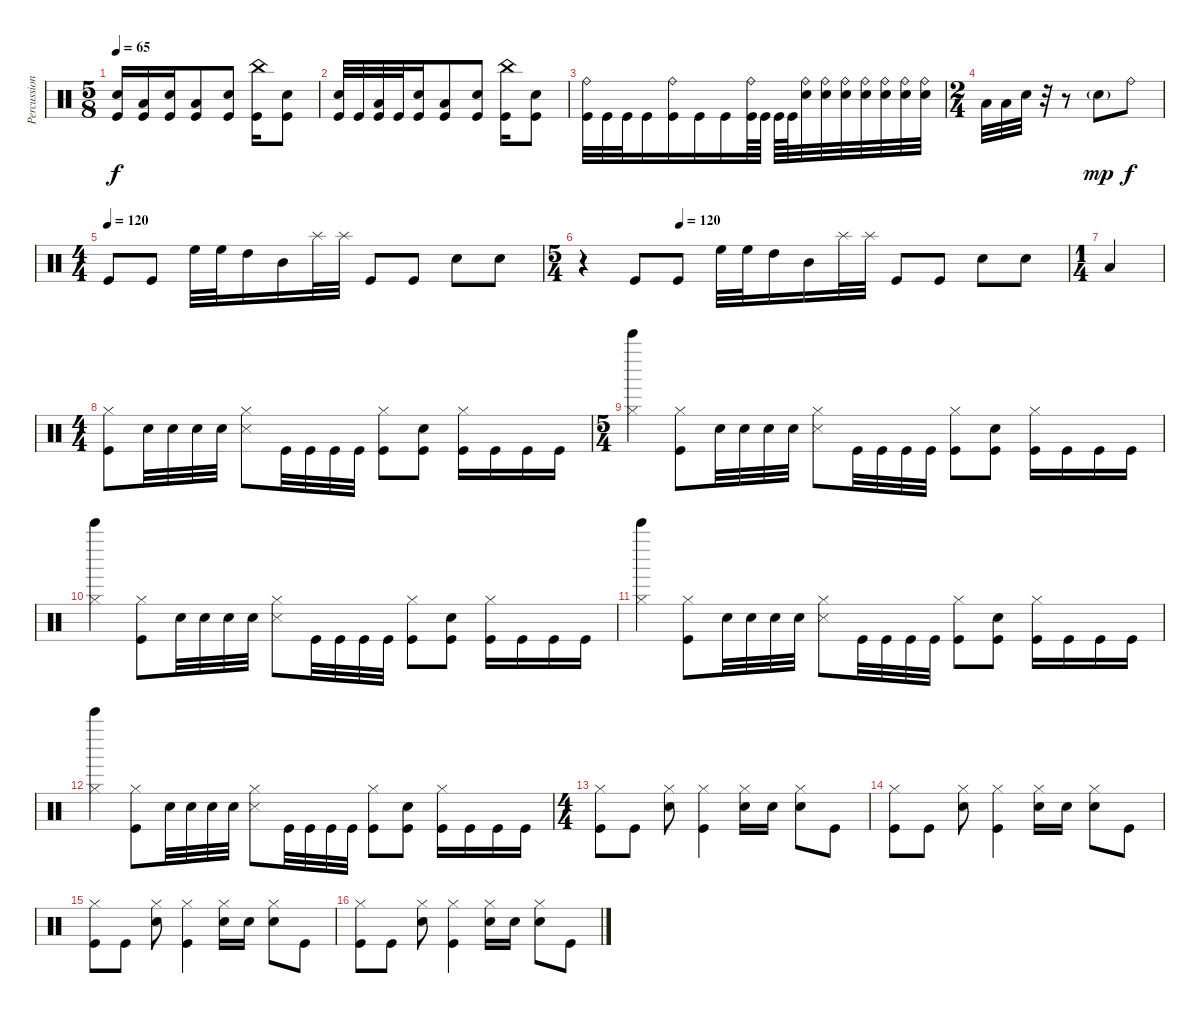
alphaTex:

\track ("Percussion" "Percussion") {instrument percussion}
\staff {score}
\articulation defaults
\ts (5 8)
\tempo 65
\clef neutral
\ks c
("Electric Snare (hit)" "Kick (hit)").16{dy f} ("Low Tom (hit)" "Kick (hit)").16 ("Electric Snare (hit)" "Kick (hit)").16 ("Low Tom (hit)" "Kick (hit)").8 ("Electric Snare (hit)" "Kick (hit)").8 ("China (hit)" "Kick (hit)").16 ("Electric Snare (hit)" "Kick (hit)").8 |
("Electric Snare (hit)" "Kick (hit)").32 "Kick (hit)".32 ("Low Tom (hit)" "Kick (hit)").32 "Kick (hit)".32 ("Electric Snare (hit)" "Kick (hit)").16 ("Low Tom (hit)" "Kick (hit)").8 ("Electric Snare (hit)" "Kick (hit)").8 ("China (hit)" "Kick (hit)").16 ("Electric Snare (hit)" "Kick (hit)").8 |
("Ride (bell)" "Kick (hit)").32 "Kick (hit)".32 "Kick (hit)".32 "Kick (hit)".16 ("Ride (bell)" "Kick (hit)").16 "Kick (hit)".16 "Kick (hit)".16 ("Ride (bell)" "Kick (hit)").64 "Kick (hit)".64 "Kick (hit)".64 "Kick (hit)".64 ("Ride (bell)" "Electric Snare (hit)").32 ("Ride (bell)" "Electric Snare (hit)").32 ("Ride (bell)" "Electric Snare (hit)").32 ("Ride (bell)" "Electric Snare (hit)").32 ("Ride (bell)" "Electric Snare (hit)").32 ("Ride (bell)" "Electric Snare (hit)").32 ("Ride (bell)" "Electric Snare (hit)").32 |
\ts (2 4)
"Low Floor Tom (hit)".32 "Low Floor Tom (hit)".32 "Electric Snare (hit)".32 r.32 r.8 "Electric Snare (hit)"{g}.8{dy mp} "Ride (bell)".8{dy f} |
\ts (4 4)
\tempo (120)
"Kick (hit)".8 "Kick (hit)".8 "High Floor Tom (hit)".32 "High Floor Tom (hit)".32 "High Tom (hit)".16 "Mid Tom (hit)".16 "Splash (hit)".32 "Splash (hit)".32 "Kick (hit)".8 "Kick (hit)".8 "Electric Snare (hit)".8 "Electric Snare (hit)".8 |
\ts (5 4)
\tempo (120 0.2)
r.4 "Kick (hit)".8 "Kick (hit)".8 "High Floor Tom (hit)".32 "High Floor Tom (hit)".32 "High Tom (hit)".16 "Mid Tom (hit)".16 "Splash (hit)".32 "Splash (hit)".32 "Kick (hit)".8 "Kick (hit)".8 "Electric Snare (hit)".8 "Electric Snare (hit)".8 |
\ts (1 4)
"Low Floor Tom (hit)".4 |
\ts (4 4)
("Hi-Hat (closed)" "Kick (hit)").8 "Electric Snare (hit)".32 "Electric Snare (hit)".32 "Electric Snare (hit)".32 "Electric Snare (hit)".32 ("Hi-Hat (closed)" "Snare (side stick) 3").8 "Kick (hit)".32 "Kick (hit)".32 "Kick (hit)".32 "Kick (hit)".32 ("Hi-Hat (closed)" "Kick (hit)").8 ("Electric Snare (hit)" "Kick (hit)").8 ("Hi-Hat (closed)" "Kick (hit)").16 "Kick (hit)".16 "Kick (hit)".16 "Kick (hit)".16 |
\ts (5 4)
("Hi-Hat (closed)" "Bell Tree (hit)").4 ("Hi-Hat (closed)" "Kick (hit)").8 "Electric Snare (hit)".32 "Electric Snare (hit)".32 "Electric Snare (hit)".32 "Electric Snare (hit)".32 ("Hi-Hat (closed)" "Snare (side stick) 3").8 "Kick (hit)".32 "Kick (hit)".32 "Kick (hit)".32 "Kick (hit)".32 ("Hi-Hat (closed)" "Kick (hit)").8 ("Electric Snare (hit)" "Kick (hit)").8 ("Hi-Hat (closed)" "Kick (hit)").16 "Kick (hit)".16 "Kick (hit)".16 "Kick (hit)".16 |
("Hi-Hat (closed)" "Bell Tree (hit)").4 ("Hi-Hat (closed)" "Kick (hit)").8 "Electric Snare (hit)".32 "Electric Snare (hit)".32 "Electric Snare (hit)".32 "Electric Snare (hit)".32 ("Hi-Hat (closed)" "Snare (side stick) 3").8 "Kick (hit)".32 "Kick (hit)".32 "Kick (hit)".32 "Kick (hit)".32 ("Hi-Hat (closed)" "Kick (hit)").8 ("Electric Snare (hit)" "Kick (hit)").8 ("Hi-Hat (closed)" "Kick (hit)").16 "Kick (hit)".16 "Kick (hit)".16 "Kick (hit)".16 |
("Hi-Hat (closed)" "Bell Tree (hit)").4 ("Hi-Hat (closed)" "Kick (hit)").8 "Electric Snare (hit)".32 "Electric Snare (hit)".32 "Electric Snare (hit)".32 "Electric Snare (hit)".32 ("Hi-Hat (closed)" "Snare (side stick) 3").8 "Kick (hit)".32 "Kick (hit)".32 "Kick (hit)".32 "Kick (hit)".32 ("Hi-Hat (closed)" "Kick (hit)").8 ("Electric Snare (hit)" "Kick (hit)").8 ("Hi-Hat (closed)" "Kick (hit)").16 "Kick (hit)".16 "Kick (hit)".16 "Kick (hit)".16 |
("Hi-Hat (closed)" "Bell Tree (hit)").4 ("Hi-Hat (closed)" "Kick (hit)").8 "Electric Snare (hit)".32 "Electric Snare (hit)".32 "Electric Snare (hit)".32 "Electric Snare (hit)".32 ("Hi-Hat (closed)" "Snare (side stick) 3").8 "Kick (hit)".32 "Kick (hit)".32 "Kick (hit)".32 "Kick (hit)".32 ("Hi-Hat (closed)" "Kick (hit)").8 ("Electric Snare (hit)" "Kick (hit)").8 ("Hi-Hat (closed)" "Kick (hit)").16 "Kick (hit)".16 "Kick (hit)".16 "Kick (hit)".16 |
\ts (4 4)
("Hi-Hat (closed)" "Kick (hit)").8 "Kick (hit)".8 ("Hi-Hat (closed)" "Electric Snare (hit)").8 ("Hi-Hat (closed)" "Kick (hit)").4 ("Hi-Hat (closed)" "Electric Snare (hit)").16 "Electric Snare (hit)".16 ("Hi-Hat (closed)" "Electric Snare (hit)").8 "Kick (hit)".8 |
("Hi-Hat (closed)" "Kick (hit)").8 "Kick (hit)".8 ("Hi-Hat (closed)" "Electric Snare (hit)").8 ("Hi-Hat (closed)" "Kick (hit)").4 ("Hi-Hat (closed)" "Electric Snare (hit)").16 "Electric Snare (hit)".16 ("Hi-Hat (closed)" "Electric Snare (hit)").8 "Kick (hit)".8 |
("Hi-Hat (closed)" "Kick (hit)").8 "Kick (hit)".8 ("Hi-Hat (closed)" "Electric Snare (hit)").8 ("Hi-Hat (closed)" "Kick (hit)").4 ("Hi-Hat (closed)" "Electric Snare (hit)").16 "Electric Snare (hit)".16 ("Hi-Hat (closed)" "Electric Snare (hit)").8 "Kick (hit)".8 |
("Hi-Hat (closed)" "Kick (hit)").8 "Kick (hit)".8 ("Hi-Hat (closed)" "Electric Snare (hit)").8 ("Hi-Hat (closed)" "Kick (hit)").4 ("Hi-Hat (closed)" "Electric Snare (hit)").16 "Electric Snare (hit)".16 ("Hi-Hat (closed)" "Electric Snare (hit)").8 "Kick (hit)".8
